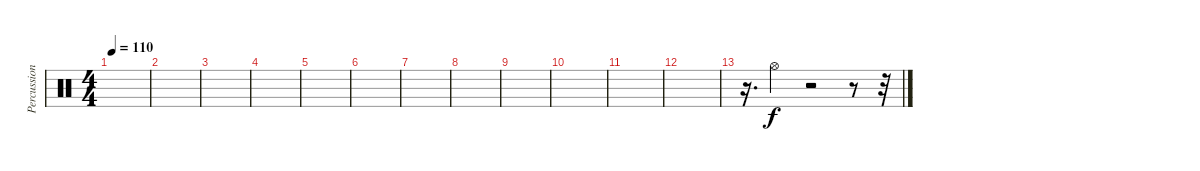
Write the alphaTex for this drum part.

\track ("Percussion" "Percussion") {instrument percussion}
\staff {score}
\articulation defaults
\ts (4 4)
\tempo 110
\clef neutral
\ks c
|
|
|
|
|
|
|
|
|
|
|
|
r.16{d} "Hi-Hat (open)".4 r.2 r.8 r.32
